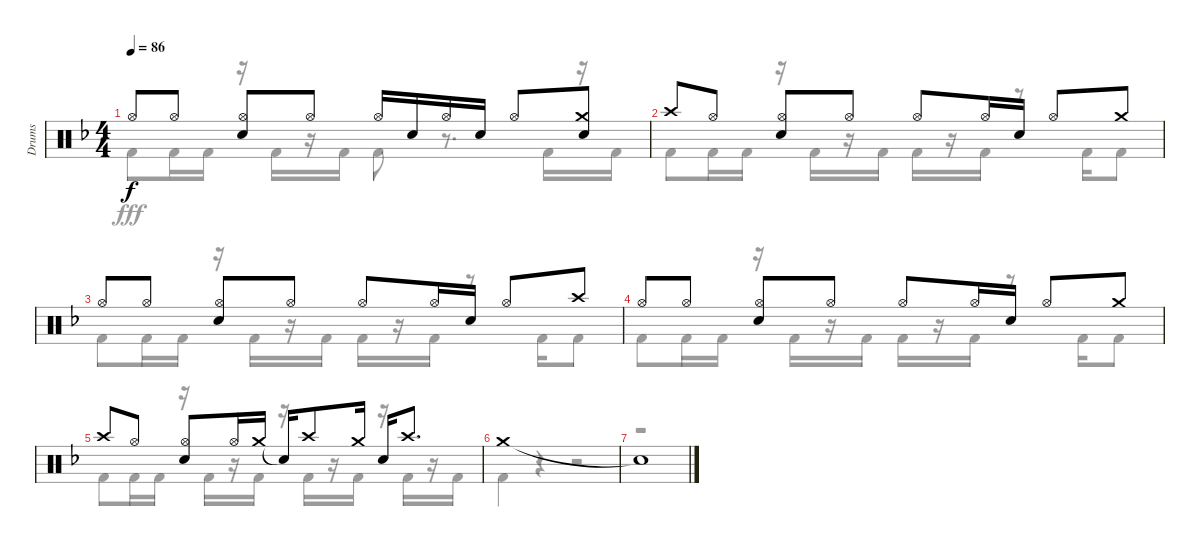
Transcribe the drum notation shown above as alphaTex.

\track ("Drums" "Drums") {instrument percussion}
\staff {score}
\articulation defaults
\voice
\ts (4 4)
\tempo 86
\clef neutral
\ks f "Hi-Hat (open)".8{dy f} "Hi-Hat (open)".8
("Hi-Hat (open)" "Snare (hit) 2").8 "Hi-Hat (open)".8 "Hi-Hat (open)".16 "Snare (hit) 2".16 "Hi-Hat (open)".16 "Snare (hit) 2".16 "Hi-Hat (open)".8 ("Crash medium (hit)" "Snare (hit) 2").8 |
"Crash high (hit)".8 "Hi-Hat (open)".8 ("Hi-Hat (open)" "Snare (hit) 2").8 "Hi-Hat (open)".8 "Hi-Hat (open)".8 "Hi-Hat (open)".16 "Snare (hit) 2".16 "Hi-Hat (open)".8 "Crash medium (hit)".8 |
"Hi-Hat (open)".8 "Hi-Hat (open)".8 ("Hi-Hat (open)" "Snare (hit) 2").8 "Hi-Hat (open)".8 "Hi-Hat (open)".8 "Hi-Hat (open)".16 "Snare (hit) 2".16 "Hi-Hat (open)".8 "Crash high (hit)".8 |
"Hi-Hat (open)".8 "Hi-Hat (open)".8 ("Hi-Hat (open)" "Snare (hit) 2").8 "Hi-Hat (open)".8 "Hi-Hat (open)".8 "Hi-Hat (open)".16 "Snare (hit) 2".16 "Hi-Hat (open)".8 "Crash medium (hit)".8 |
"Crash high (hit)".8 "Hi-Hat (open)".8 ("Hi-Hat (open)" "Snare (hit) 2").8 "Hi-Hat (open)".16 "Crash medium (hit)".16 "Snare (hit)"{t}.16 "Crash high (hit)".8 "Crash medium (hit)".16 "Snare (hit) 2".16 "Crash high (hit)".8{d} |
"Crash medium (hit)".1 |
"Snare (hit)"{t}.1
\voice
\clef neutral
\ottava regular
\simile none
\ks f "Kick (hit) 2".8{dy fff} "Kick (hit) 2".16 "Kick (hit) 2".16
r.16 "Kick (hit) 2".16 r.16 "Kick (hit) 2".16 "Kick (hit) 2".8 r.8{d} "Kick (hit) 2".16 r.16 "Kick (hit) 2".16 |
"Kick (hit) 2".8 "Kick (hit) 2".16 "Kick (hit) 2".16 r.16 "Kick (hit) 2".16 r.16 "Kick (hit) 2".16 "Kick (hit) 2".16 r.16 "Kick (hit) 2".16 r.8 "Kick (hit) 2".16 "Kick (hit) 2".8 |
"Kick (hit) 2".8 "Kick (hit) 2".16 "Kick (hit) 2".16 r.16 "Kick (hit) 2".16 r.16 "Kick (hit) 2".16 "Kick (hit) 2".16 r.16 "Kick (hit) 2".16 r.8 "Kick (hit) 2".16 "Kick (hit) 2".8 |
"Kick (hit) 2".8 "Kick (hit) 2".16 "Kick (hit) 2".16 r.16 "Kick (hit) 2".16 r.16 "Kick (hit) 2".16 "Kick (hit) 2".16 r.16 "Kick (hit) 2".16 r.8 "Kick (hit) 2".16 "Kick (hit) 2".8 |
"Kick (hit) 2".8 "Kick (hit) 2".16 "Kick (hit) 2".16 r.16 "Kick (hit) 2".16 r.16 "Kick (hit) 2".16 r.16 "Kick (hit) 2".16 r.16 "Kick (hit) 2".16 r.16 "Kick (hit) 2".16 r.16 "Kick (hit) 2".16 |
"Kick (hit) 2".4 r.4 r.2 |
r.1
